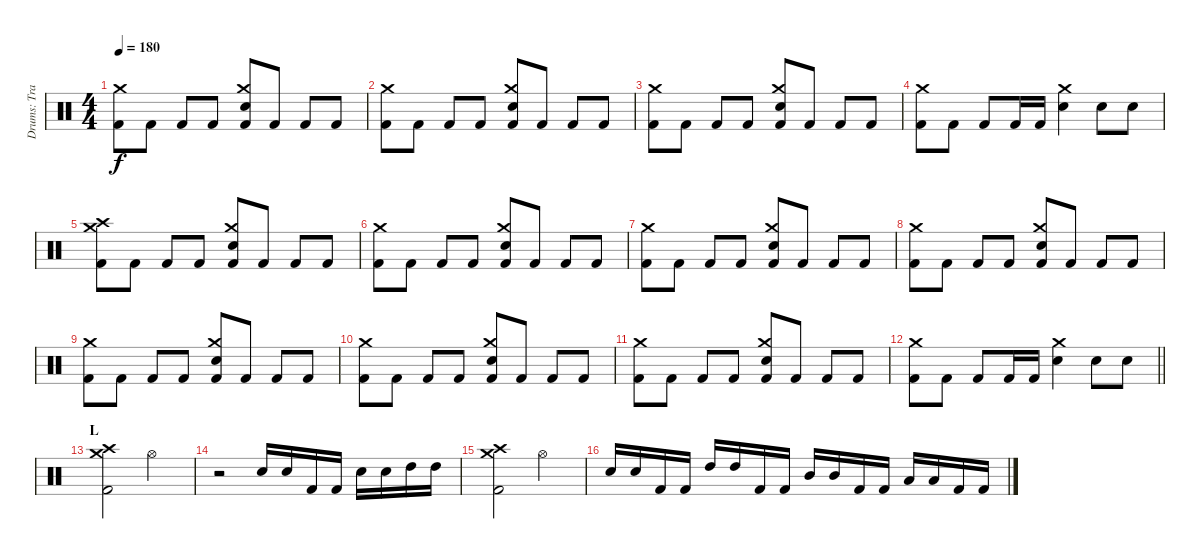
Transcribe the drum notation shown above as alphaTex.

\track ("Drums: Travis Clarke" "Drums: Tra") {instrument percussion}
\staff {score}
\articulation defaults
\ts (4 4)
\tempo 180
\clef neutral
\ks c
("Kick (hit) 2" "Crash medium (hit)").8{dy f} "Kick (hit) 2".8 "Kick (hit) 2".8 "Kick (hit) 2".8 ("Kick (hit) 2" "Snare (hit) 2" "Crash medium (hit)").8 "Kick (hit) 2".8 "Kick (hit) 2".8 "Kick (hit) 2".8 |
("Kick (hit) 2" "Crash medium (hit)").8 "Kick (hit) 2".8 "Kick (hit) 2".8 "Kick (hit) 2".8 ("Kick (hit) 2" "Snare (hit) 2" "Crash medium (hit)").8 "Kick (hit) 2".8 "Kick (hit) 2".8 "Kick (hit) 2".8 |
("Kick (hit) 2" "Crash medium (hit)").8 "Kick (hit) 2".8 "Kick (hit) 2".8 "Kick (hit) 2".8 ("Kick (hit) 2" "Snare (hit) 2" "Crash medium (hit)").8 "Kick (hit) 2".8 "Kick (hit) 2".8 "Kick (hit) 2".8 |
("Kick (hit) 2" "Crash medium (hit)").8 "Kick (hit) 2".8 "Kick (hit) 2".8 "Kick (hit) 2".16 "Kick (hit) 2".16 ("Snare (hit) 2" "Crash medium (hit)").4 "Snare (hit) 2".8 "Snare (hit) 2".8 |
("Kick (hit) 2" "Crash high (hit)" "Crash medium (hit)").8 "Kick (hit) 2".8 "Kick (hit) 2".8 "Kick (hit) 2".8 ("Kick (hit) 2" "Snare (hit) 2" "Crash medium (hit)").8 "Kick (hit) 2".8 "Kick (hit) 2".8 "Kick (hit) 2".8 |
("Kick (hit) 2" "Crash medium (hit)").8 "Kick (hit) 2".8 "Kick (hit) 2".8 "Kick (hit) 2".8 ("Kick (hit) 2" "Snare (hit) 2" "Crash medium (hit)").8 "Kick (hit) 2".8 "Kick (hit) 2".8 "Kick (hit) 2".8 |
("Kick (hit) 2" "Crash medium (hit)").8 "Kick (hit) 2".8 "Kick (hit) 2".8 "Kick (hit) 2".8 ("Kick (hit) 2" "Snare (hit) 2" "Crash medium (hit)").8 "Kick (hit) 2".8 "Kick (hit) 2".8 "Kick (hit) 2".8 |
("Kick (hit) 2" "Crash medium (hit)").8 "Kick (hit) 2".8 "Kick (hit) 2".8 "Kick (hit) 2".8 ("Kick (hit) 2" "Snare (hit) 2" "Crash medium (hit)").8 "Kick (hit) 2".8 "Kick (hit) 2".8 "Kick (hit) 2".8 |
("Kick (hit) 2" "Crash medium (hit)").8 "Kick (hit) 2".8 "Kick (hit) 2".8 "Kick (hit) 2".8 ("Kick (hit) 2" "Snare (hit) 2" "Crash medium (hit)").8 "Kick (hit) 2".8 "Kick (hit) 2".8 "Kick (hit) 2".8 |
("Kick (hit) 2" "Crash medium (hit)").8 "Kick (hit) 2".8 "Kick (hit) 2".8 "Kick (hit) 2".8 ("Kick (hit) 2" "Snare (hit) 2" "Crash medium (hit)").8 "Kick (hit) 2".8 "Kick (hit) 2".8 "Kick (hit) 2".8 |
("Kick (hit) 2" "Crash medium (hit)").8 "Kick (hit) 2".8 "Kick (hit) 2".8 "Kick (hit) 2".8 ("Kick (hit) 2" "Snare (hit) 2" "Crash medium (hit)").8 "Kick (hit) 2".8 "Kick (hit) 2".8 "Kick (hit) 2".8 |
\barLineRight lightlight
("Kick (hit) 2" "Crash medium (hit)").8 "Kick (hit) 2".8 "Kick (hit) 2".8 "Kick (hit) 2".16 "Kick (hit) 2".16 ("Snare (hit) 2" "Crash medium (hit)").4 "Snare (hit) 2".8 "Snare (hit) 2".8 |
\section ("" "L")
("Kick (hit) 2" "Crash high (hit)" "Crash medium (hit)").2 "Hi-Hat (open)".2 |
r.2 "Snare (hit) 2".16 "Snare (hit) 2".16 "Kick (hit) 2".16 "Kick (hit) 2".16 "Snare (hit) 2".16 "Snare (hit) 2".16 "High Tom (hit)".16 "High Tom (hit)".16 |
("Kick (hit) 2" "Crash high (hit)" "Crash medium (hit)").2 "Hi-Hat (open)".2 |
"Snare (hit) 2".16 "Snare (hit) 2".16 "Kick (hit) 2".16 "Kick (hit) 2".16 "High Tom (hit)".16 "High Tom (hit)".16 "Kick (hit) 2".16 "Kick (hit) 2".16 "Mid Tom (hit)".16 "Mid Tom (hit)".16 "Kick (hit) 2".16 "Kick (hit) 2".16 "Low Tom (hit)".16 "Low Tom (hit)".16 "Kick (hit) 2".16 "Kick (hit) 2".16
